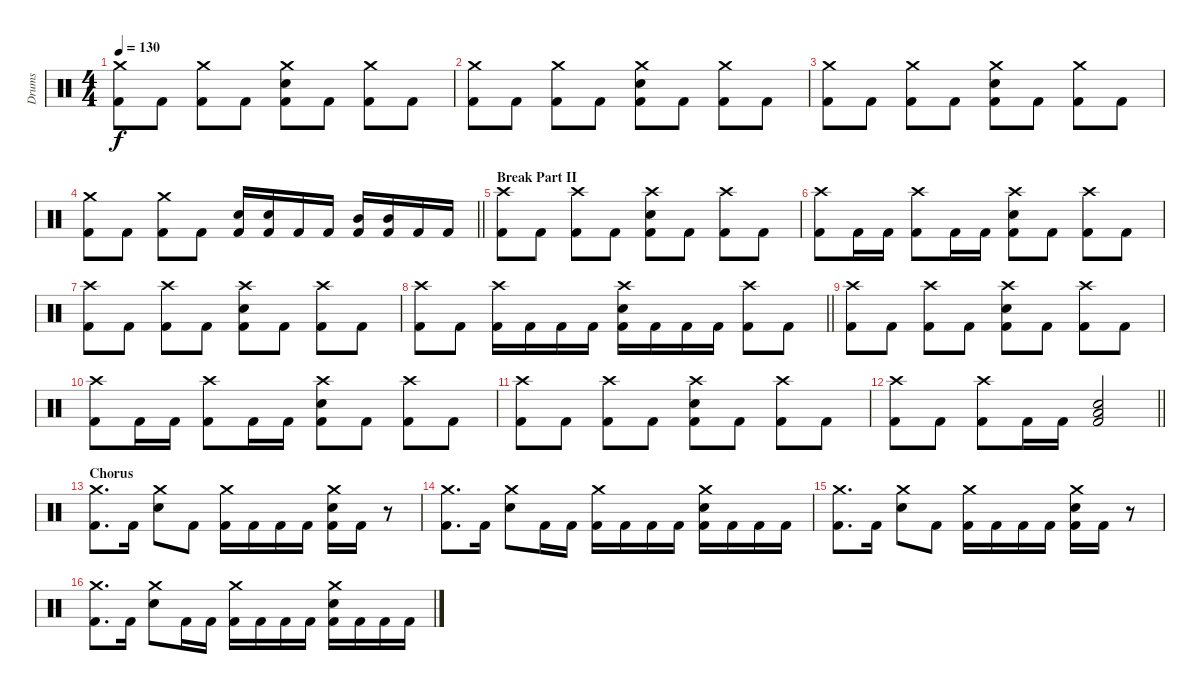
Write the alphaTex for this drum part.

\track ("Drums" "Drums") {instrument percussion}
\staff {score}
\articulation defaults
\ts (4 4)
\tempo 130
\clef neutral
\ks c
("Crash medium (hit)" "Kick (hit) 2").8{dy f} "Kick (hit) 2".8 ("Crash medium (hit)" "Kick (hit) 2").8 "Kick (hit) 2".8 ("Crash medium (hit)" "Electric Snare (hit)" "Kick (hit) 2").8 "Kick (hit) 2".8 ("Crash medium (hit)" "Kick (hit) 2").8 "Kick (hit) 2".8 |
("Crash medium (hit)" "Kick (hit) 2").8 "Kick (hit) 2".8 ("Crash medium (hit)" "Kick (hit) 2").8 "Kick (hit) 2".8 ("Crash medium (hit)" "Electric Snare (hit)" "Kick (hit) 2").8 "Kick (hit) 2".8 ("Crash medium (hit)" "Kick (hit) 2").8 "Kick (hit) 2".8 |
("Crash medium (hit)" "Kick (hit) 2").8 "Kick (hit) 2".8 ("Crash medium (hit)" "Kick (hit) 2").8 "Kick (hit) 2".8 ("Crash medium (hit)" "Electric Snare (hit)" "Kick (hit) 2").8 "Kick (hit) 2".8 ("Crash medium (hit)" "Kick (hit) 2").8 "Kick (hit) 2".8 |
\barLineRight lightlight
("Crash medium (hit)" "Kick (hit) 2").8 "Kick (hit) 2".8 ("Crash medium (hit)" "Kick (hit) 2").8 "Kick (hit) 2".8 ("Electric Snare (hit)" "Kick (hit) 2").16 ("Electric Snare (hit)" "Kick (hit) 2").16 "Kick (hit) 2".16 "Kick (hit) 2".16 ("Mid Tom (hit)" "Kick (hit) 2").16 ("Mid Tom (hit)" "Kick (hit) 2").16 "Kick (hit) 2".16 "Kick (hit) 2".16 |
\section ("" "Break Part II")
("Crash high (hit)" "Kick (hit) 2").8 "Kick (hit) 2".8 ("Crash high (hit)" "Kick (hit) 2").8 "Kick (hit) 2".8 ("Crash high (hit)" "Electric Snare (hit)" "Kick (hit) 2").8 "Kick (hit) 2".8 ("Crash high (hit)" "Kick (hit) 2").8 "Kick (hit) 2".8 |
("Crash high (hit)" "Kick (hit) 2").8 "Kick (hit) 2".16 "Kick (hit) 2".16 ("Crash high (hit)" "Kick (hit) 2").8 "Kick (hit) 2".16 "Kick (hit) 2".16 ("Crash high (hit)" "Electric Snare (hit)" "Kick (hit) 2").8 "Kick (hit) 2".8 ("Crash high (hit)" "Kick (hit) 2").8 "Kick (hit) 2".8 |
("Crash high (hit)" "Kick (hit) 2").8 "Kick (hit) 2".8 ("Crash high (hit)" "Kick (hit) 2").8 "Kick (hit) 2".8 ("Crash high (hit)" "Electric Snare (hit)" "Kick (hit) 2").8 "Kick (hit) 2".8 ("Crash high (hit)" "Kick (hit) 2").8 "Kick (hit) 2".8 |
\barLineRight lightlight
("Crash high (hit)" "Kick (hit) 2").8 "Kick (hit) 2".8 ("Crash high (hit)" "Kick (hit) 2").16 "Kick (hit) 2".16 "Kick (hit) 2".16 "Kick (hit) 2".16 ("Crash high (hit)" "Electric Snare (hit)" "Kick (hit) 2").16 "Kick (hit) 2".16 "Kick (hit) 2".16 "Kick (hit) 2".16 ("Crash high (hit)" "Kick (hit) 2").8 "Kick (hit) 2".8 |
("Crash high (hit)" "Kick (hit) 2").8 "Kick (hit) 2".8 ("Crash high (hit)" "Kick (hit) 2").8 "Kick (hit) 2".8 ("Crash high (hit)" "Electric Snare (hit)" "Kick (hit) 2").8 "Kick (hit) 2".8 ("Crash high (hit)" "Kick (hit) 2").8 "Kick (hit) 2".8 |
("Crash high (hit)" "Kick (hit) 2").8 "Kick (hit) 2".16 "Kick (hit) 2".16 ("Crash high (hit)" "Kick (hit) 2").8 "Kick (hit) 2".16 "Kick (hit) 2".16 ("Crash high (hit)" "Electric Snare (hit)" "Kick (hit) 2").8 "Kick (hit) 2".8 ("Crash high (hit)" "Kick (hit) 2").8 "Kick (hit) 2".8 |
("Crash high (hit)" "Kick (hit) 2").8 "Kick (hit) 2".8 ("Crash high (hit)" "Kick (hit) 2").8 "Kick (hit) 2".8 ("Crash high (hit)" "Electric Snare (hit)" "Kick (hit) 2").8 "Kick (hit) 2".8 ("Crash high (hit)" "Kick (hit) 2").8 "Kick (hit) 2".8 |
\barLineRight lightlight
("Crash high (hit)" "Kick (hit) 2").8 "Kick (hit) 2".8 ("Crash high (hit)" "Kick (hit) 2").8 "Kick (hit) 2".16 "Kick (hit) 2".16 ("Low Floor Tom (hit)" "Electric Snare (hit)" "Kick (hit) 2").2 |
\section ("" "Chorus")
("Crash medium (hit)" "Kick (hit) 2").8{d} "Kick (hit) 2".16 ("Crash medium (hit)" "Electric Snare (hit)").8 "Kick (hit) 2".8 ("Crash medium (hit)" "Kick (hit) 2").16 "Kick (hit) 2".16 "Kick (hit) 2".16 "Kick (hit) 2".16 ("Crash medium (hit)" "Electric Snare (hit)" "Kick (hit) 2").16 "Kick (hit) 2".16 r.8 |
("Crash medium (hit)" "Kick (hit) 2").8{d} "Kick (hit) 2".16 ("Crash medium (hit)" "Electric Snare (hit)").8 "Kick (hit) 2".16 "Kick (hit) 2".16 ("Crash medium (hit)" "Kick (hit) 2").16 "Kick (hit) 2".16 "Kick (hit) 2".16 "Kick (hit) 2".16 ("Crash medium (hit)" "Electric Snare (hit)" "Kick (hit) 2").16 "Kick (hit) 2".16 "Kick (hit) 2".16 "Kick (hit) 2".16 |
("Crash medium (hit)" "Kick (hit) 2").8{d} "Kick (hit) 2".16 ("Crash medium (hit)" "Electric Snare (hit)").8 "Kick (hit) 2".8 ("Crash medium (hit)" "Kick (hit) 2").16 "Kick (hit) 2".16 "Kick (hit) 2".16 "Kick (hit) 2".16 ("Crash medium (hit)" "Electric Snare (hit)" "Kick (hit) 2").16 "Kick (hit) 2".16 r.8 |
("Crash medium (hit)" "Kick (hit) 2").8{d} "Kick (hit) 2".16 ("Crash medium (hit)" "Electric Snare (hit)").8 "Kick (hit) 2".16 "Kick (hit) 2".16 ("Crash medium (hit)" "Kick (hit) 2").16 "Kick (hit) 2".16 "Kick (hit) 2".16 "Kick (hit) 2".16 ("Crash medium (hit)" "Electric Snare (hit)" "Kick (hit) 2").16 "Kick (hit) 2".16 "Kick (hit) 2".16 "Kick (hit) 2".16
